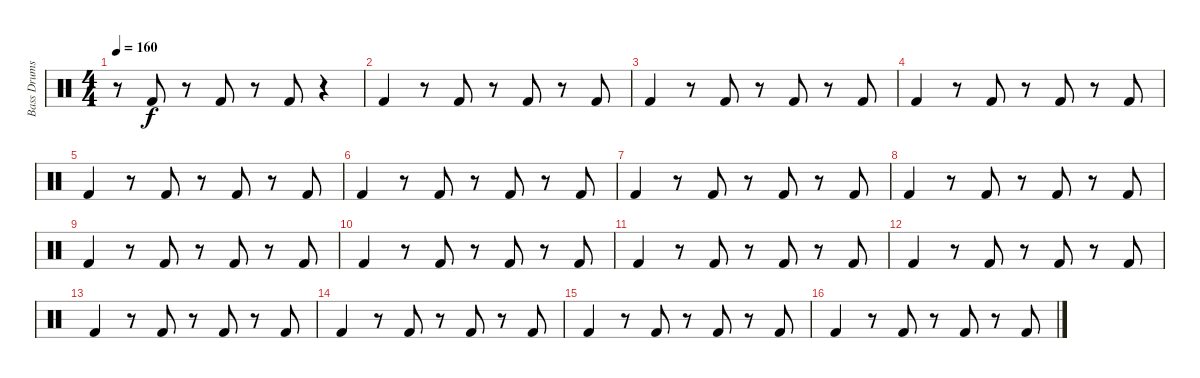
\track ("Bass Drums" "Bass Drums") {instrument percussion}
\staff {score}
\articulation defaults
\ts (4 4)
\tempo 160
\clef neutral
\ks c
r.8{dy f} "Kick (hit) 2".8 r.8 "Kick (hit) 2".8 r.8 "Kick (hit) 2".8 r.4 |
"Kick (hit) 2".4 r.8 "Kick (hit) 2".8 r.8 "Kick (hit) 2".8 r.8 "Kick (hit) 2".8 |
"Kick (hit) 2".4 r.8 "Kick (hit) 2".8 r.8 "Kick (hit) 2".8 r.8 "Kick (hit) 2".8 |
"Kick (hit) 2".4 r.8 "Kick (hit) 2".8 r.8 "Kick (hit) 2".8 r.8 "Kick (hit) 2".8 |
"Kick (hit) 2".4 r.8 "Kick (hit) 2".8 r.8 "Kick (hit) 2".8 r.8 "Kick (hit) 2".8 |
"Kick (hit) 2".4 r.8 "Kick (hit) 2".8 r.8 "Kick (hit) 2".8 r.8 "Kick (hit) 2".8 |
"Kick (hit) 2".4 r.8 "Kick (hit) 2".8 r.8 "Kick (hit) 2".8 r.8 "Kick (hit) 2".8 |
"Kick (hit) 2".4 r.8 "Kick (hit) 2".8 r.8 "Kick (hit) 2".8 r.8 "Kick (hit) 2".8 |
"Kick (hit) 2".4 r.8 "Kick (hit) 2".8 r.8 "Kick (hit) 2".8 r.8 "Kick (hit) 2".8 |
"Kick (hit) 2".4 r.8 "Kick (hit) 2".8 r.8 "Kick (hit) 2".8 r.8 "Kick (hit) 2".8 |
"Kick (hit) 2".4 r.8 "Kick (hit) 2".8 r.8 "Kick (hit) 2".8 r.8 "Kick (hit) 2".8 |
"Kick (hit) 2".4 r.8 "Kick (hit) 2".8 r.8 "Kick (hit) 2".8 r.8 "Kick (hit) 2".8 |
"Kick (hit) 2".4 r.8 "Kick (hit) 2".8 r.8 "Kick (hit) 2".8 r.8 "Kick (hit) 2".8 |
"Kick (hit) 2".4 r.8 "Kick (hit) 2".8 r.8 "Kick (hit) 2".8 r.8 "Kick (hit) 2".8 |
"Kick (hit) 2".4 r.8 "Kick (hit) 2".8 r.8 "Kick (hit) 2".8 r.8 "Kick (hit) 2".8 |
"Kick (hit) 2".4 r.8 "Kick (hit) 2".8 r.8 "Kick (hit) 2".8 r.8 "Kick (hit) 2".8
